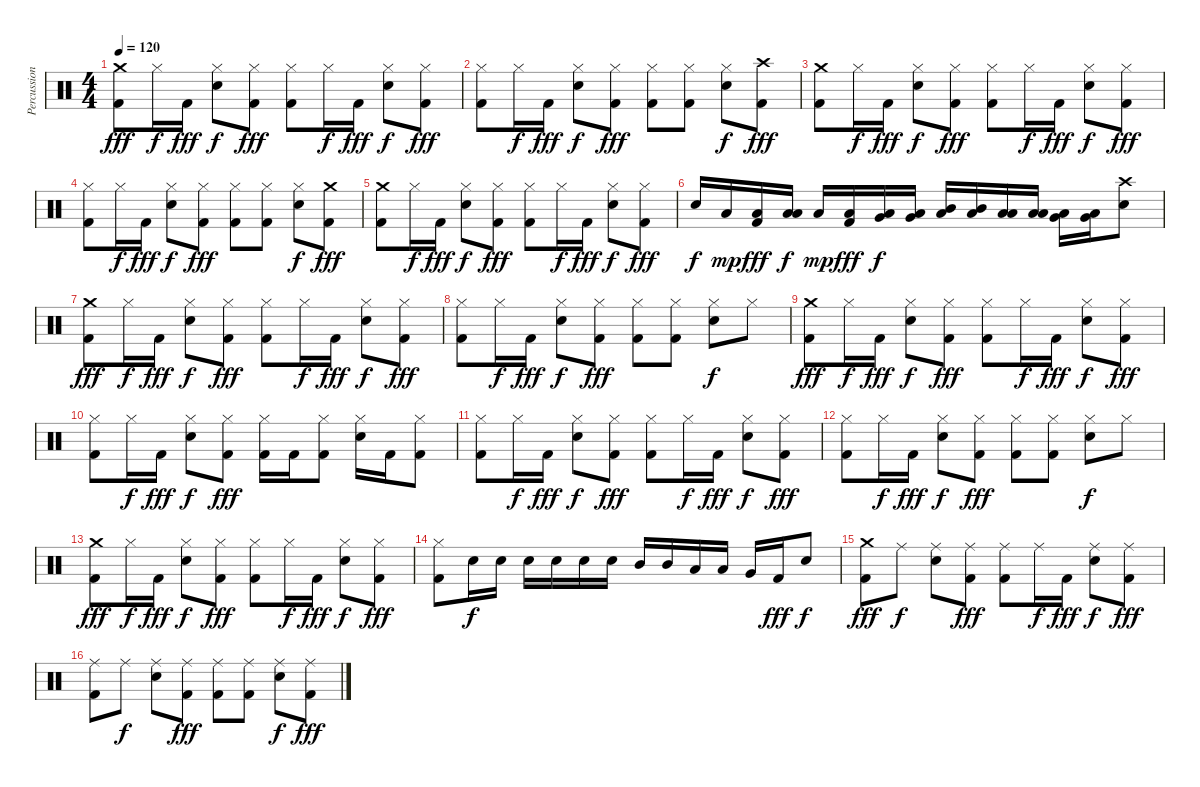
\track ("Percussion" "Percussion") {instrument percussion}
\staff {score}
\articulation defaults
\ts (4 4)
\tempo 120
\clef neutral
\ks c
("Crash medium (hit)" "Kick (hit) 2").8{dy fff} "Hi-Hat (closed)".16{dy f} "Kick (hit) 2".16{dy fff} ("Hi-Hat (closed)" "Electric Snare (hit)").8{dy f} ("Hi-Hat (closed)" "Kick (hit) 2").8{dy fff} ("Hi-Hat (closed)" "Kick (hit) 2").8 "Hi-Hat (closed)".16{dy f} "Kick (hit) 2".16{dy fff} ("Hi-Hat (closed)" "Electric Snare (hit)").8{dy f} ("Hi-Hat (closed)" "Kick (hit) 2").8{dy fff} |
("Hi-Hat (closed)" "Kick (hit) 2").8 "Hi-Hat (closed)".16{dy f} "Kick (hit) 2".16{dy fff} ("Hi-Hat (closed)" "Electric Snare (hit)").8{dy f} ("Hi-Hat (closed)" "Kick (hit) 2").8{dy fff} ("Hi-Hat (closed)" "Kick (hit) 2").8 ("Hi-Hat (closed)" "Kick (hit) 2").8 ("Hi-Hat (closed)" "Electric Snare (hit)").8{dy f} ("Crash high (hit)" "Kick (hit) 2").8{dy fff} |
("Crash medium (hit)" "Kick (hit) 2").8 "Hi-Hat (closed)".16{dy f} "Kick (hit) 2".16{dy fff} ("Hi-Hat (closed)" "Electric Snare (hit)").8{dy f} ("Hi-Hat (closed)" "Kick (hit) 2").8{dy fff} ("Hi-Hat (closed)" "Kick (hit) 2").8 "Hi-Hat (closed)".16{dy f} "Kick (hit) 2".16{dy fff} ("Hi-Hat (closed)" "Electric Snare (hit)").8{dy f} ("Hi-Hat (closed)" "Kick (hit) 2").8{dy fff} |
("Hi-Hat (closed)" "Kick (hit) 2").8 "Hi-Hat (closed)".16{dy f} "Kick (hit) 2".16{dy fff} ("Hi-Hat (closed)" "Electric Snare (hit)").8{dy f} ("Hi-Hat (closed)" "Kick (hit) 2").8{dy fff} ("Hi-Hat (closed)" "Kick (hit) 2").8 ("Hi-Hat (closed)" "Kick (hit) 2").8 ("Hi-Hat (closed)" "Electric Snare (hit)").8{dy f} ("Crash medium (hit)" "Kick (hit) 2").8{dy fff} |
("Crash medium (hit)" "Kick (hit) 2").8 "Hi-Hat (closed)".16{dy f} "Kick (hit) 2".16{dy fff} ("Hi-Hat (closed)" "Electric Snare (hit)").8{dy f} ("Hi-Hat (closed)" "Kick (hit) 2").8{dy fff} ("Hi-Hat (closed)" "Kick (hit) 2").8 "Hi-Hat (closed)".16{dy f} "Kick (hit) 2".16{dy fff} ("Hi-Hat (closed)" "Electric Snare (hit)").8{dy f} ("Hi-Hat (closed)" "Kick (hit) 2").8{dy fff} |
"Electric Snare (hit)".16{dy f} "Low Floor Tom (hit)".16{dy mp} ("Low Floor Tom (hit)" "Kick (hit) 2").16{dy fff} ("Low Floor Tom (hit)" "Low Tom (hit)").16{dy f} "Low Floor Tom (hit)".16{dy mp} ("Low Floor Tom (hit)" "Kick (hit) 2").16{dy fff} ("Very Low Tom (hit)" "Low Floor Tom (hit)").16{dy f} ("Very Low Tom (hit)" "Low Floor Tom (hit)").16 ("Mid Tom (hit)" "Low Floor Tom (hit)").16 ("Mid Tom (hit)" "Low Floor Tom (hit)").16 ("Low Tom (hit)" "Low Floor Tom (hit)").16 ("Low Tom (hit)" "Low Floor Tom (hit)").16 ("Very Low Tom (hit)" "Low Floor Tom (hit)").16 ("Very Low Tom (hit)" "Low Floor Tom (hit)").16 ("Crash high (hit)" "Electric Snare (hit)").8 |
("Crash medium (hit)" "Kick (hit) 2").8{dy fff} "Hi-Hat (closed)".16{dy f} "Kick (hit) 2".16{dy fff} ("Hi-Hat (closed)" "Electric Snare (hit)").8{dy f} ("Hi-Hat (closed)" "Kick (hit) 2").8{dy fff} ("Hi-Hat (closed)" "Kick (hit) 2").8 "Hi-Hat (closed)".16{dy f} "Kick (hit) 2".16{dy fff} ("Hi-Hat (closed)" "Electric Snare (hit)").8{dy f} ("Hi-Hat (closed)" "Kick (hit) 2").8{dy fff} |
("Hi-Hat (closed)" "Kick (hit) 2").8 "Hi-Hat (closed)".16{dy f} "Kick (hit) 2".16{dy fff} ("Hi-Hat (closed)" "Electric Snare (hit)").8{dy f} ("Hi-Hat (closed)" "Kick (hit) 2").8{dy fff} ("Hi-Hat (closed)" "Kick (hit) 2").8 ("Hi-Hat (closed)" "Kick (hit) 2").8 ("Hi-Hat (closed)" "Electric Snare (hit)").8{dy f} "Hi-Hat (closed)".8 |
("Crash medium (hit)" "Kick (hit) 2").8{dy fff} "Hi-Hat (closed)".16{dy f} "Kick (hit) 2".16{dy fff} ("Hi-Hat (closed)" "Electric Snare (hit)").8{dy f} ("Hi-Hat (closed)" "Kick (hit) 2").8{dy fff} ("Hi-Hat (closed)" "Kick (hit) 2").8 "Hi-Hat (closed)".16{dy f} "Kick (hit) 2".16{dy fff} ("Hi-Hat (closed)" "Electric Snare (hit)").8{dy f} ("Hi-Hat (closed)" "Kick (hit) 2").8{dy fff} |
("Hi-Hat (closed)" "Kick (hit) 2").8 "Hi-Hat (closed)".16{dy f} "Kick (hit) 2".16{dy fff} ("Hi-Hat (closed)" "Electric Snare (hit)").8{dy f} ("Hi-Hat (closed)" "Kick (hit) 2").8{dy fff} ("Hi-Hat (closed)" "Kick (hit) 2").16 "Kick (hit) 2".16 ("Hi-Hat (closed)" "Kick (hit) 2").8 ("Hi-Hat (closed)" "Electric Snare (hit)").16 "Kick (hit) 2".16 ("Hi-Hat (closed)" "Kick (hit) 2").8 |
("Hi-Hat (closed)" "Kick (hit) 2").8 "Hi-Hat (closed)".16{dy f} "Kick (hit) 2".16{dy fff} ("Hi-Hat (closed)" "Electric Snare (hit)").8{dy f} ("Hi-Hat (closed)" "Kick (hit) 2").8{dy fff} ("Hi-Hat (closed)" "Kick (hit) 2").8 "Hi-Hat (closed)".16{dy f} "Kick (hit) 2".16{dy fff} ("Hi-Hat (closed)" "Electric Snare (hit)").8{dy f} ("Hi-Hat (closed)" "Kick (hit) 2").8{dy fff} |
("Hi-Hat (closed)" "Kick (hit) 2").8 "Hi-Hat (closed)".16{dy f} "Kick (hit) 2".16{dy fff} ("Hi-Hat (closed)" "Electric Snare (hit)").8{dy f} ("Hi-Hat (closed)" "Kick (hit) 2").8{dy fff} ("Hi-Hat (closed)" "Kick (hit) 2").8 ("Hi-Hat (closed)" "Kick (hit) 2").8 ("Hi-Hat (closed)" "Electric Snare (hit)").8{dy f} "Hi-Hat (closed)".8 |
("Crash medium (hit)" "Kick (hit) 2").8{dy fff} "Hi-Hat (closed)".16{dy f} "Kick (hit) 2".16{dy fff} ("Hi-Hat (closed)" "Electric Snare (hit)").8{dy f} ("Hi-Hat (closed)" "Kick (hit) 2").8{dy fff} ("Hi-Hat (closed)" "Kick (hit) 2").8 "Hi-Hat (closed)".16{dy f} "Kick (hit) 2".16{dy fff} ("Hi-Hat (closed)" "Electric Snare (hit)").8{dy f} ("Hi-Hat (closed)" "Kick (hit) 2").8{dy fff} |
("Hi-Hat (closed)" "Kick (hit) 2").8 "Electric Snare (hit)".16{dy f} "Electric Snare (hit)".16 "Electric Snare (hit)".16 "Electric Snare (hit)".16 "Electric Snare (hit)".16 "Electric Snare (hit)".16 "Mid Tom (hit)".16 "Mid Tom (hit)".16 "Low Tom (hit)".16 "Low Tom (hit)".16 "Very Low Tom (hit)".16 "Kick (hit) 2".16{dy fff} "Electric Snare (hit)".8{dy f} |
("Crash medium (hit)" "Kick (hit) 2").8{dy fff} "Ride (middle)".8{dy f} ("Ride (middle)" "Electric Snare (hit)").8 ("Ride (middle)" "Kick (hit) 2").8{dy fff} ("Ride (middle)" "Kick (hit) 2").8 "Ride (middle)".16{dy f} "Kick (hit) 2".16{dy fff} ("Ride (middle)" "Electric Snare (hit)").8{dy f} ("Ride (middle)" "Kick (hit) 2").8{dy fff} |
("Ride (middle)" "Kick (hit) 2").8 "Ride (middle)".8{dy f} ("Ride (middle)" "Electric Snare (hit)").8 ("Ride (middle)" "Kick (hit) 2").8{dy fff} ("Ride (middle)" "Kick (hit) 2").8 ("Ride (middle)" "Kick (hit) 2").8 ("Ride (middle)" "Electric Snare (hit)").8{dy f} ("Ride (middle)" "Kick (hit) 2").8{dy fff}
